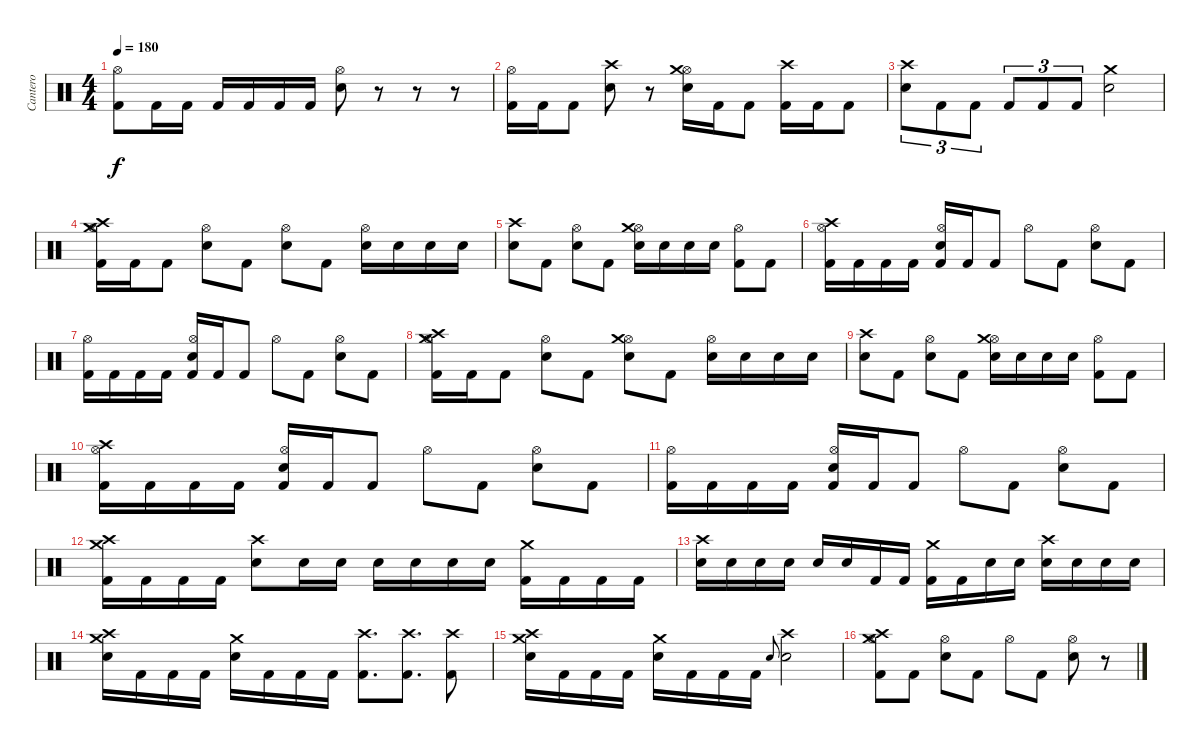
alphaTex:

\track ("Cantero" "Cantero") {instrument percussion}
\staff {score}
\articulation defaults
\ts (4 4)
\tempo 180
\clef neutral
\ks c
("Kick (hit) 2" "Hi-Hat (open)").8{dy f} "Kick (hit) 2".16 "Kick (hit) 2".16 "Kick (hit) 2".16 "Kick (hit) 2".16 "Kick (hit) 2".16 "Kick (hit) 2".16 ("Electric Snare (hit)" "Hi-Hat (open)").8 r.8 r.8 r.8 |
("Kick (hit) 2" "Hi-Hat (open)").16 "Kick (hit) 2".16 "Kick (hit) 2".8 ("Electric Snare (hit)" "Crash high (hit)").8 r.8 ("Hi-Hat (open)" "Snare (hit) 2" "Crash medium (hit)").16 "Kick (hit) 2".16 "Kick (hit) 2".8 ("Kick (hit) 2" "Crash high (hit)").16 "Kick (hit) 2".16 "Kick (hit) 2".8 |
("Electric Snare (hit)" "Crash high (hit)").8{tu (3 2)} "Kick (hit) 2".8{tu (3 2)} "Kick (hit) 2".8{tu (3 2)} "Kick (hit) 2".8{tu (3 2)} "Kick (hit) 2".8{tu (3 2)} "Kick (hit) 2".8{tu (3 2)} ("Snare (hit) 2" "Crash medium (hit)").2 |
("Kick (hit) 2" "Hi-Hat (open)" "Crash high (hit)" "Crash medium (hit)").16 "Kick (hit) 2".16 "Kick (hit) 2".8 ("Electric Snare (hit)" "Hi-Hat (open)").8 "Kick (hit) 2".8 ("Electric Snare (hit)" "Hi-Hat (open)").8 "Kick (hit) 2".8 ("Electric Snare (hit)" "Hi-Hat (open)").16 "Electric Snare (hit)".16 "Electric Snare (hit)".16 "Electric Snare (hit)".16 |
("Electric Snare (hit)" "Crash high (hit)").8 "Kick (hit) 2".8 ("Hi-Hat (open)" "Electric Snare (hit)").8 "Kick (hit) 2".8 ("Electric Snare (hit)" "Hi-Hat (open)" "Crash medium (hit)").16 "Electric Snare (hit)".16 "Electric Snare (hit)".16 "Electric Snare (hit)".16 ("Kick (hit) 2" "Hi-Hat (open)").8 "Kick (hit) 2".8 |
("Kick (hit) 2" "Hi-Hat (open)" "Crash high (hit)").16 "Kick (hit) 2".16 "Kick (hit) 2".16 "Kick (hit) 2".16 ("Kick (hit) 2" "Electric Snare (hit)" "Hi-Hat (open)").16 "Kick (hit) 2".16 "Kick (hit) 2".8 "Hi-Hat (open)".8 "Kick (hit) 2".8 ("Hi-Hat (open)" "Electric Snare (hit)").8 "Kick (hit) 2".8 |
("Kick (hit) 2" "Hi-Hat (open)").16 "Kick (hit) 2".16 "Kick (hit) 2".16 "Kick (hit) 2".16 ("Kick (hit) 2" "Electric Snare (hit)" "Hi-Hat (open)").16 "Kick (hit) 2".16 "Kick (hit) 2".8 "Hi-Hat (open)".8 "Kick (hit) 2".8 ("Hi-Hat (open)" "Electric Snare (hit)").8 "Kick (hit) 2".8 |
("Kick (hit) 2" "Hi-Hat (open)" "Crash high (hit)" "Crash medium (hit)").16 "Kick (hit) 2".16 "Kick (hit) 2".8 ("Electric Snare (hit)" "Hi-Hat (open)").8 "Kick (hit) 2".8 ("Electric Snare (hit)" "Hi-Hat (open)" "Crash medium (hit)").8 "Kick (hit) 2".8 ("Electric Snare (hit)" "Hi-Hat (open)").16 "Electric Snare (hit)".16 "Electric Snare (hit)".16 "Electric Snare (hit)".16 |
("Electric Snare (hit)" "Crash high (hit)").8 "Kick (hit) 2".8 ("Hi-Hat (open)" "Electric Snare (hit)").8 "Kick (hit) 2".8 ("Electric Snare (hit)" "Hi-Hat (open)" "Crash medium (hit)").16 "Electric Snare (hit)".16 "Electric Snare (hit)".16 "Electric Snare (hit)".16 ("Kick (hit) 2" "Hi-Hat (open)").8 "Kick (hit) 2".8 |
("Kick (hit) 2" "Hi-Hat (open)" "Crash high (hit)").16 "Kick (hit) 2".16 "Kick (hit) 2".16 "Kick (hit) 2".16 ("Kick (hit) 2" "Electric Snare (hit)" "Hi-Hat (open)").16 "Kick (hit) 2".16 "Kick (hit) 2".8 "Hi-Hat (open)".8 "Kick (hit) 2".8 ("Hi-Hat (open)" "Electric Snare (hit)").8 "Kick (hit) 2".8 |
("Kick (hit) 2" "Hi-Hat (open)").16 "Kick (hit) 2".16 "Kick (hit) 2".16 "Kick (hit) 2".16 ("Kick (hit) 2" "Electric Snare (hit)" "Hi-Hat (open)").16 "Kick (hit) 2".16 "Kick (hit) 2".8 "Hi-Hat (open)".8 "Kick (hit) 2".8 ("Hi-Hat (open)" "Electric Snare (hit)").8 "Kick (hit) 2".8 |
("Kick (hit) 2" "Crash medium (hit)" "Crash high (hit)").16 "Kick (hit) 2".16 "Kick (hit) 2".16 "Kick (hit) 2".16 ("Electric Snare (hit)" "Crash high (hit)").8 "Electric Snare (hit)".16 "Electric Snare (hit)".16 "Electric Snare (hit)".16 "Electric Snare (hit)".16 "Electric Snare (hit)".16 "Electric Snare (hit)".16 ("Kick (hit) 2" "Crash medium (hit)").16 "Kick (hit) 2".16 "Kick (hit) 2".16 "Kick (hit) 2".16 |
("Electric Snare (hit)" "Crash high (hit)").16 "Electric Snare (hit)".16 "Electric Snare (hit)".16 "Electric Snare (hit)".16 "Electric Snare (hit)".16 "Electric Snare (hit)".16 "Kick (hit) 2".16 "Kick (hit) 2".16 ("Kick (hit) 2" "Crash medium (hit)").16 "Kick (hit) 2".16 "Electric Snare (hit)".16 "Electric Snare (hit)".16 ("Electric Snare (hit)" "Crash high (hit)").16 "Electric Snare (hit)".16 "Electric Snare (hit)".16 "Electric Snare (hit)".16 |
("Electric Snare (hit)" "Crash high (hit)" "Crash medium (hit)").16 "Kick (hit) 2".16 "Kick (hit) 2".16 "Kick (hit) 2".16 ("Electric Snare (hit)" "Crash medium (hit)").16 "Kick (hit) 2".16 "Kick (hit) 2".16 "Kick (hit) 2".16 ("Kick (hit) 2" "Crash high (hit)").8{d} ("Kick (hit) 2" "Crash high (hit)").8{d} ("Kick (hit) 2" "Crash high (hit)").8 |
("Electric Snare (hit)" "Crash high (hit)" "Crash medium (hit)").16 "Kick (hit) 2".16 "Kick (hit) 2".16 "Kick (hit) 2".16 ("Electric Snare (hit)" "Crash medium (hit)").16 "Kick (hit) 2".16 "Kick (hit) 2".16 "Kick (hit) 2".16 "Electric Snare (hit)".8{gr onbeat} ("Electric Snare (hit)" "Crash high (hit)").2 |
("Kick (hit) 2" "Hi-Hat (open)" "Crash high (hit)" "Crash medium (hit)").8 "Kick (hit) 2".8 ("Electric Snare (hit)" "Hi-Hat (open)").8 "Kick (hit) 2".8 "Hi-Hat (open)".8 "Kick (hit) 2".8 ("Electric Snare (hit)" "Hi-Hat (open)").8 r.8
